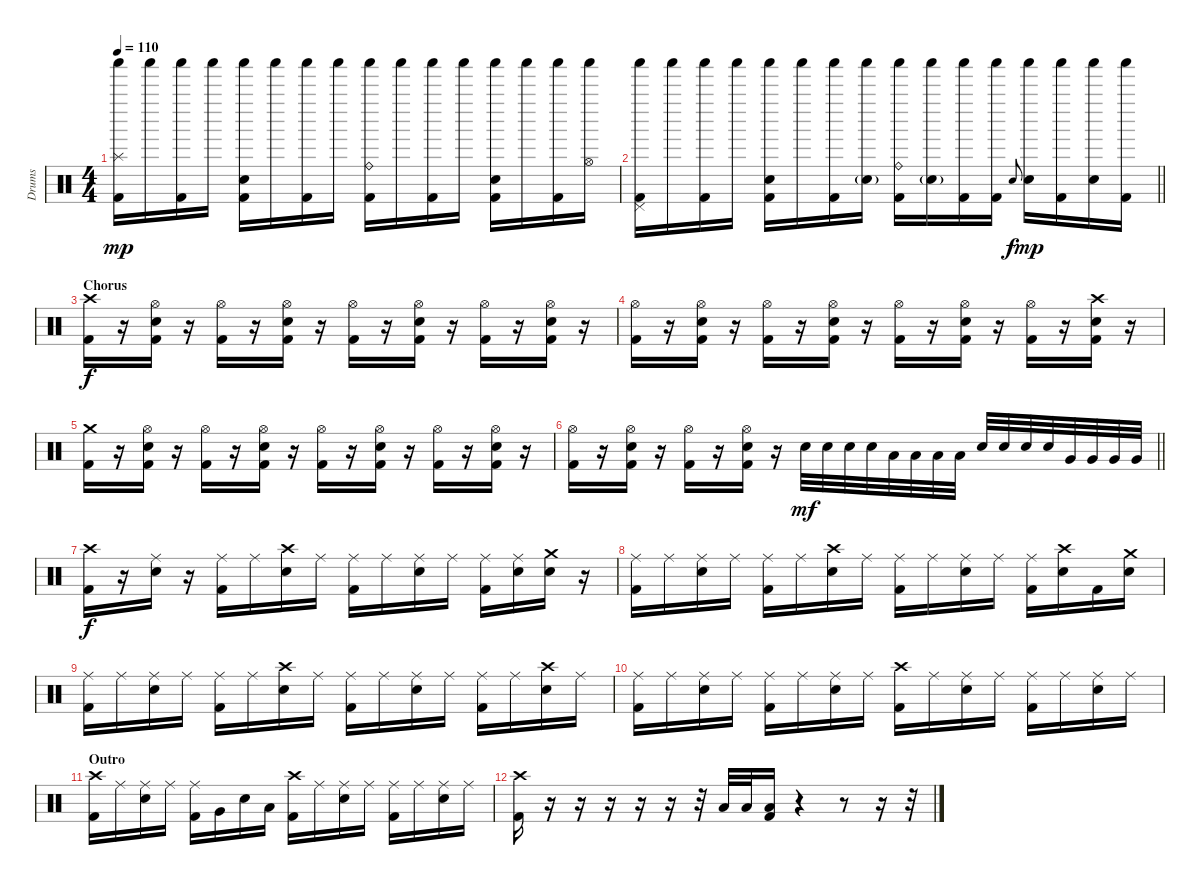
\track ("Drums" "Drums") {instrument percussion}
\staff {score}
\articulation defaults
\ts (4 4)
\tempo 110
\clef neutral
\ks c
("Splash (hit)" "Shaker (hit)" "Kick (hit) 2").16{dy mp} "Shaker (hit)".16 ("Shaker (hit)" "Kick (hit) 2").16 "Shaker (hit)".16 ("Electric Snare (hit)" "Shaker (hit)" "Kick (hit) 2").16 "Shaker (hit)".16 ("Shaker (hit)" "Kick (hit) 2").16 "Shaker (hit)".16 ("Ride (bell)" "Shaker (hit)" "Kick (hit) 2").16 "Shaker (hit)".16 ("Shaker (hit)" "Kick (hit) 2").16 "Shaker (hit)".16 ("Electric Snare (hit)" "Shaker (hit)" "Kick (hit) 2").16 "Shaker (hit)".16 ("Shaker (hit)" "Kick (hit) 2").16 ("Hi-Hat (open)" "Shaker (hit)").16 |
\barLineRight lightlight
("Pedal Hi-Hat (hit)" "Shaker (hit)" "Kick (hit) 2").16 "Shaker (hit)".16 ("Shaker (hit)" "Kick (hit) 2").16 "Shaker (hit)".16 ("Electric Snare (hit)" "Shaker (hit)" "Kick (hit) 2").16 "Shaker (hit)".16 ("Shaker (hit)" "Kick (hit) 2").16 ("Electric Snare (hit)"{g} "Shaker (hit)").16 ("Ride (bell)" "Shaker (hit)" "Kick (hit) 2").16 ("Electric Snare (hit)"{g} "Shaker (hit)").16 ("Shaker (hit)" "Kick (hit) 2").16 ("Shaker (hit)" "Kick (hit) 2").16 "Electric Snare (hit)".8{gr onbeat dy f} ("Electric Snare (hit)" "Shaker (hit)").16{dy mp} ("Shaker (hit)" "Kick (hit) 2").16 ("Electric Snare (hit)" "Shaker (hit)").16 ("Shaker (hit)" "Kick (hit) 2").16 |
\section ("" "Chorus")
("Crash high (hit)" "Kick (hit) 2").16{dy f} r.16 ("Hi-Hat (open)" "Electric Snare (hit)" "Kick (hit) 2").16 r.16 ("Hi-Hat (open)" "Kick (hit) 2").16 r.16 ("Hi-Hat (open)" "Electric Snare (hit)" "Kick (hit) 2").16 r.16 ("Hi-Hat (open)" "Kick (hit) 2").16 r.16 ("Hi-Hat (open)" "Electric Snare (hit)" "Kick (hit) 2").16 r.16 ("Hi-Hat (open)" "Kick (hit) 2").16 r.16 ("Hi-Hat (open)" "Electric Snare (hit)" "Kick (hit) 2").16 r.16 |
("Hi-Hat (open)" "Kick (hit) 2").16 r.16 ("Hi-Hat (open)" "Electric Snare (hit)" "Kick (hit) 2").16 r.16 ("Hi-Hat (open)" "Kick (hit) 2").16 r.16 ("Hi-Hat (open)" "Electric Snare (hit)" "Kick (hit) 2").16 r.16 ("Hi-Hat (open)" "Kick (hit) 2").16 r.16 ("Hi-Hat (open)" "Electric Snare (hit)" "Kick (hit) 2").16 r.16 ("Hi-Hat (open)" "Kick (hit) 2").16 r.16 ("Crash high (hit)" "Electric Snare (hit)" "Kick (hit) 2").16 r.16 |
("Crash medium (hit)" "Kick (hit) 2").16 r.16 ("Hi-Hat (open)" "Electric Snare (hit)" "Kick (hit) 2").16 r.16 ("Hi-Hat (open)" "Kick (hit) 2").16 r.16 ("Hi-Hat (open)" "Electric Snare (hit)" "Kick (hit) 2").16 r.16 ("Hi-Hat (open)" "Kick (hit) 2").16 r.16 ("Hi-Hat (open)" "Electric Snare (hit)" "Kick (hit) 2").16 r.16 ("Hi-Hat (open)" "Kick (hit) 2").16 r.16 ("Hi-Hat (open)" "Electric Snare (hit)" "Kick (hit) 2").16 r.16 |
\barLineRight lightlight
("Hi-Hat (open)" "Kick (hit) 2").16 r.16 ("Hi-Hat (open)" "Electric Snare (hit)" "Kick (hit) 2").16 r.16 ("Hi-Hat (open)" "Kick (hit) 2").16 r.16 ("Hi-Hat (open)" "Electric Snare (hit)" "Kick (hit) 2").16 r.16 "Electric Snare (hit)".32{dy mf} "Electric Snare (hit)".32 "Electric Snare (hit)".32 "Electric Snare (hit)".32 "Low Tom (hit)".32 "Low Tom (hit)".32 "Low Tom (hit)".32 "Low Tom (hit)".32 "Electric Snare (hit)".32 "Electric Snare (hit)".32 "Electric Snare (hit)".32 "Electric Snare (hit)".32 "Very Low Tom (hit)".32 "Very Low Tom (hit)".32 "Very Low Tom (hit)".32 "Very Low Tom (hit)".32 |
("Crash high (hit)" "Kick (hit) 2").16{dy f} r.16 ("Ride (middle)" "Electric Snare (hit)").16 r.16 ("Ride (middle)" "Kick (hit) 2").16 "Ride (middle)".16 ("Crash high (hit)" "Electric Snare (hit)").16 "Ride (middle)".16 ("Ride (middle)" "Kick (hit) 2").16 "Ride (middle)".16 ("Ride (middle)" "Electric Snare (hit)").16 "Ride (middle)".16 ("Ride (middle)" "Kick (hit) 2").16 ("Ride (middle)" "Electric Snare (hit)").16 ("Crash medium (hit)" "Electric Snare (hit)").16 r.16 |
("Ride (middle)" "Kick (hit) 2").16 "Ride (middle)".16 ("Ride (middle)" "Electric Snare (hit)").16 "Ride (middle)".16 ("Ride (middle)" "Kick (hit) 2").16 "Ride (middle)".16 ("Crash high (hit)" "Electric Snare (hit)").16 "Ride (middle)".16 ("Ride (middle)" "Kick (hit) 2").16 "Ride (middle)".16 ("Ride (middle)" "Electric Snare (hit)").16 "Ride (middle)".16 ("Ride (middle)" "Kick (hit) 2").16 ("Crash high (hit)" "Electric Snare (hit)").16 "Kick (hit) 2".16 ("Crash medium (hit)" "Electric Snare (hit)").16 |
("Ride (middle)" "Kick (hit) 2").16 "Ride (middle)".16 ("Ride (middle)" "Electric Snare (hit)").16 "Ride (middle)".16 ("Ride (middle)" "Kick (hit) 2").16 "Ride (middle)".16 ("Crash high (hit)" "Electric Snare (hit)").16 "Ride (middle)".16 ("Ride (middle)" "Kick (hit) 2").16 "Ride (middle)".16 ("Ride (middle)" "Electric Snare (hit)").16 "Ride (middle)".16 ("Ride (middle)" "Kick (hit) 2").16 "Ride (middle)".16 ("Crash high (hit)" "Electric Snare (hit)").16 "Ride (middle)".16 |
("Ride (middle)" "Kick (hit) 2").16 "Ride (middle)".16 ("Ride (middle)" "Electric Snare (hit)").16 "Ride (middle)".16 ("Ride (middle)" "Kick (hit) 2").16 "Ride (middle)".16 ("Ride (middle)" "Electric Snare (hit)").16 "Ride (middle)".16 ("Crash high (hit)" "Kick (hit) 2").16 "Ride (middle)".16 ("Ride (middle)" "Electric Snare (hit)").16 "Ride (middle)".16 ("Ride (middle)" "Kick (hit) 2").16 "Ride (middle)".16 ("Ride (middle)" "Electric Snare (hit)").16 "Ride (middle)".16 |
\section ("" "Outro")
("Crash high (hit)" "Kick (hit) 2").16 "Ride (middle)".16 ("Ride (middle)" "Electric Snare (hit)").16 "Ride (middle)".16 ("Ride (middle)" "Kick (hit) 2").16 "Very Low Tom (hit)".16 "Electric Snare (hit)".16 "Low Tom (hit)".16 ("Crash high (hit)" "Kick (hit) 2").16 "Ride (middle)".16 ("Ride (middle)" "Electric Snare (hit)").16 "Ride (middle)".16 ("Ride (middle)" "Kick (hit) 2").16 "Ride (middle)".16 ("Ride (middle)" "Electric Snare (hit)").16 "Ride (middle)".16 |
("Crash high (hit)" "Kick (hit) 2").16 r.16 r.16 r.16 r.16 r.16 r.32 "Low Tom (hit)".32 "Low Tom (hit)".32 ("Low Tom (hit)" "Kick (hit) 2").16 r.4 r.8 r.16 r.32
